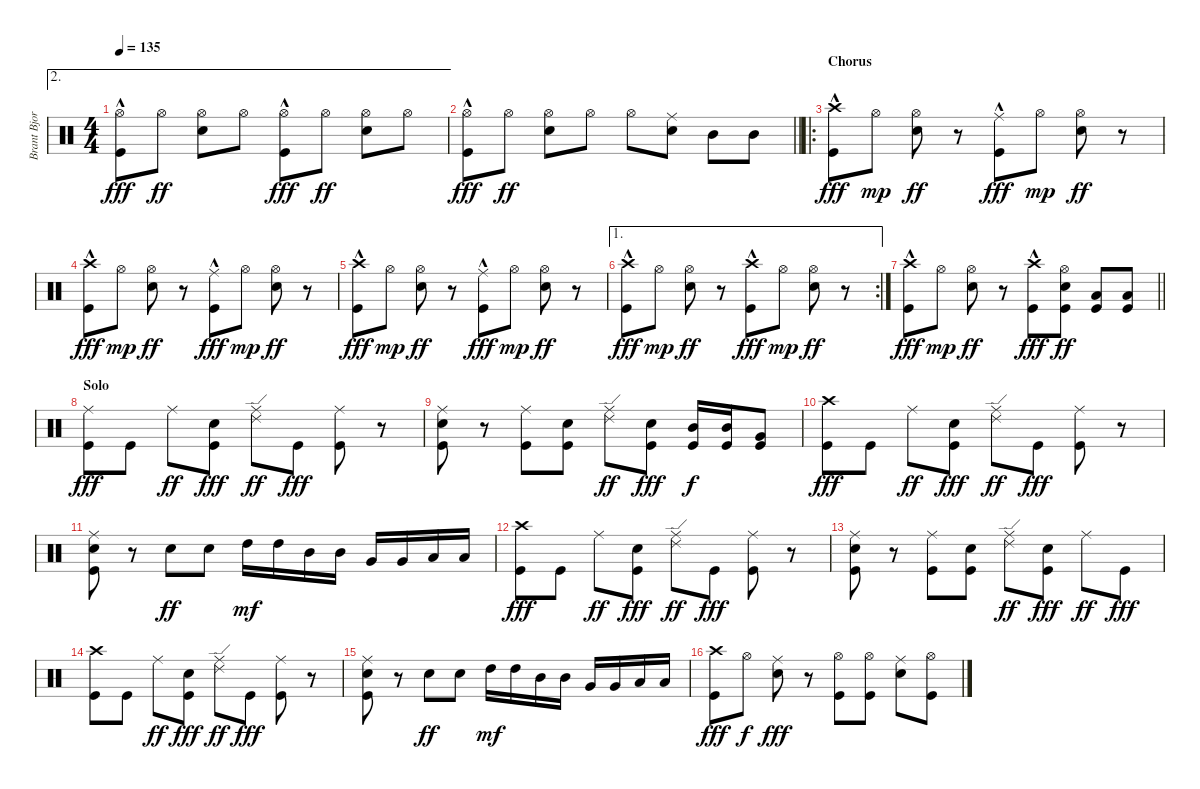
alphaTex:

\track ("Brant Bjork" "Brant Bjor") {instrument percussion}
\staff {score}
\articulation defaults
\ae 2
\ts (4 4)
\tempo 135
\clef neutral
\ks c
("Hi-Hat (open)" "Kick (hit)"{hac}).8{dy fff} "Hi-Hat (open)".8{dy ff} ("Hi-Hat (open)" "Snare (hit) 2").8 "Hi-Hat (open)".8 ("Hi-Hat (open)" "Kick (hit)"{hac}).8{dy fff} "Hi-Hat (open)".8{dy ff} ("Hi-Hat (open)" "Snare (hit) 2").8 "Hi-Hat (open)".8 |
\barLineRight lightlight
("Hi-Hat (open)" "Kick (hit)"{hac}).8{dy fff} "Hi-Hat (open)".8{dy ff} ("Hi-Hat (open)" "Snare (hit) 2").8 "Hi-Hat (open)".8 "Hi-Hat (open)".8 ("Ride (middle)" "Snare (hit) 2").8 "Mid Tom (hit)".8 "Mid Tom (hit)".8 |
\ro
\section ("" "Chorus")
("Crash high (hit)" "Kick (hit)"{hac}).8{dy fff} "Hi-Hat (open)".8{dy mp} ("Hi-Hat (open)" "Snare (hit) 2").8{dy ff} r.8 ("Ride (middle)" "Kick (hit)"{hac}).8{dy fff} "Hi-Hat (open)".8{dy mp} ("Hi-Hat (open)" "Snare (hit) 2").8{dy ff} r.8 |
("Crash high (hit)" "Kick (hit)"{hac}).8{dy fff} "Hi-Hat (open)".8{dy mp} ("Hi-Hat (open)" "Snare (hit) 2").8{dy ff} r.8 ("Ride (middle)" "Kick (hit)"{hac}).8{dy fff} "Hi-Hat (open)".8{dy mp} ("Hi-Hat (open)" "Snare (hit) 2").8{dy ff} r.8 |
("Crash high (hit)" "Kick (hit)"{hac}).8{dy fff} "Hi-Hat (open)".8{dy mp} ("Hi-Hat (open)" "Snare (hit) 2").8{dy ff} r.8 ("Ride (middle)" "Kick (hit)"{hac}).8{dy fff} "Hi-Hat (open)".8{dy mp} ("Hi-Hat (open)" "Snare (hit) 2").8{dy ff} r.8 |
\ae 1
\rc 2
("Crash high (hit)" "Kick (hit)"{hac}).8{dy fff} "Hi-Hat (open)".8{dy mp} ("Hi-Hat (open)" "Snare (hit) 2").8{dy ff} r.8 ("Crash high (hit)" "Kick (hit)"{hac}).8{dy fff} "Hi-Hat (open)".8{dy mp} ("Hi-Hat (open)" "Snare (hit) 2").8{dy ff} r.8 |
\barLineRight lightlight
("Crash high (hit)" "Kick (hit)"{hac}).8{dy fff} "Hi-Hat (open)".8{dy mp} ("Hi-Hat (open)" "Snare (hit) 2").8{dy ff} r.8 ("Crash high (hit)" "Kick (hit)"{hac}).8{dy fff} ("Hi-Hat (open)" "Snare (hit) 2" "Kick (hit)").8{dy ff} ("Low Tom (hit)" "Kick (hit)").8 ("Low Tom (hit)" "Kick (hit)").8 |
\section ("" "Solo")
("Ride (middle)" "Kick (hit)").8{dy fff} "Kick (hit)".8 "Ride (middle)".8{dy ff} ("Snare (hit) 2" "Kick (hit)").8{dy fff} ("Ride (edge) 2" "Ride (middle)").8{dy ff} "Kick (hit)".8{dy fff} ("Ride (middle)" "Kick (hit)").8 r.8 |
("Ride (middle)" "Snare (hit) 2" "Kick (hit)").8 r.8 ("Ride (middle)" "Kick (hit)").8 ("Snare (hit) 2" "Kick (hit)").8 ("Ride (middle)" "Ride (edge) 2").8{dy ff} ("Snare (hit) 2" "Kick (hit)").8{dy fff} ("Mid Tom (hit)" "Kick (hit)").16{dy f} ("Mid Tom (hit)" "Kick (hit)").16 ("Very Low Tom (hit)" "Kick (hit)").8 |
("Crash high (hit)" "Kick (hit)").8{dy fff} "Kick (hit)".8 "Ride (middle)".8{dy ff} ("Snare (hit) 2" "Kick (hit)").8{dy fff} ("Ride (edge) 2" "Ride (middle)").8{dy ff} "Kick (hit)".8{dy fff} ("Ride (middle)" "Kick (hit)").8 r.8 |
("Ride (middle)" "Snare (hit) 2" "Kick (hit)").8 r.8 "Snare (hit) 2".8{dy ff} "Snare (hit) 2".8 "High Tom (hit)".16{dy mf} "High Tom (hit)".16 "Mid Tom (hit)".16 "Mid Tom (hit)".16 "Very Low Tom (hit)".16 "Very Low Tom (hit)".16 "Low Floor Tom (hit)".16 "Low Floor Tom (hit)".16 |
("Crash high (hit)" "Kick (hit)").8{dy fff} "Kick (hit)".8 "Ride (middle)".8{dy ff} ("Snare (hit) 2" "Kick (hit)").8{dy fff} ("Ride (edge) 2" "Ride (middle)").8{dy ff} "Kick (hit)".8{dy fff} ("Ride (middle)" "Kick (hit)").8 r.8 |
("Ride (middle)" "Snare (hit) 2" "Kick (hit)").8 r.8 ("Ride (middle)" "Kick (hit)").8 ("Snare (hit) 2" "Kick (hit)").8 ("Ride (middle)" "Ride (edge) 2").8{dy ff} ("Snare (hit) 2" "Kick (hit)").8{dy fff} "Ride (middle)".8{dy ff} "Kick (hit)".8{dy fff} |
("Crash high (hit)" "Kick (hit)").8 "Kick (hit)".8 "Ride (middle)".8{dy ff} ("Snare (hit) 2" "Kick (hit)").8{dy fff} ("Ride (edge) 2" "Ride (middle)").8{dy ff} "Kick (hit)".8{dy fff} ("Ride (middle)" "Kick (hit)").8 r.8 |
("Ride (middle)" "Snare (hit) 2" "Kick (hit)").8 r.8 "Snare (hit) 2".8{dy ff} "Snare (hit) 2".8 "High Tom (hit)".16{dy mf} "High Tom (hit)".16 "Mid Tom (hit)".16 "Mid Tom (hit)".16 "Very Low Tom (hit)".16 "Very Low Tom (hit)".16 "Low Floor Tom (hit)".16 "Low Floor Tom (hit)".16 |
("Crash high (hit)" "Kick (hit)").8{dy fff} "Hi-Hat (open)".8{dy f} ("Ride (middle)" "Snare (hit) 2").8{dy fff} r.8 ("Hi-Hat (open)" "Kick (hit)").8 ("Hi-Hat (open)" "Kick (hit)").8 ("Ride (middle)" "Snare (hit) 2").8 ("Hi-Hat (open)" "Kick (hit)").8
